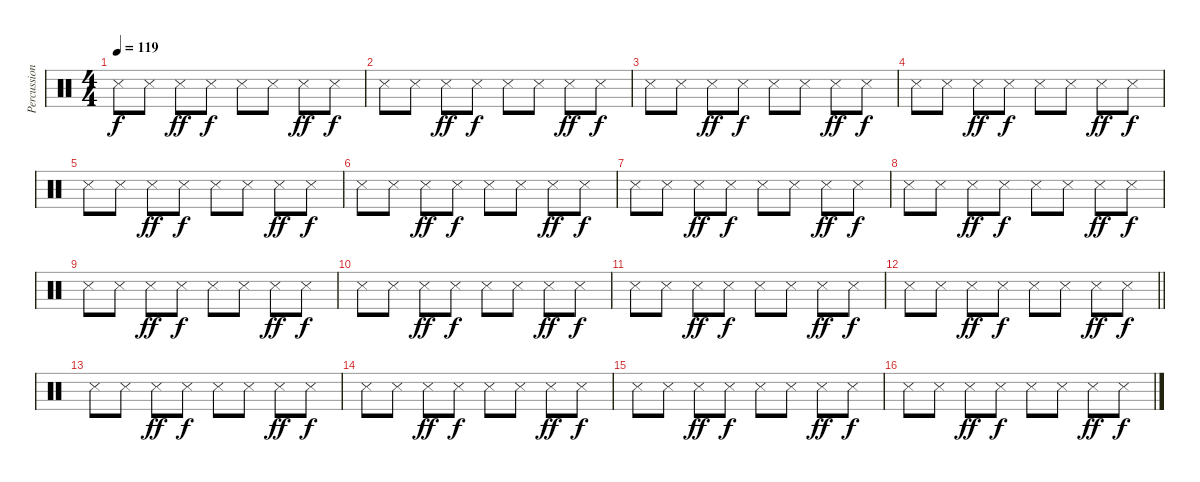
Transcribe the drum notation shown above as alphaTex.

\track ("Percussion" "Percussion") {instrument percussion}
\staff {score}
\articulation defaults
\ts (4 4)
\tempo 119
\clef neutral
\ks c "Snare (side stick) 3".8{dy f} "Snare (side stick) 3".8 "Snare (side stick) 3".8{dy ff} "Snare (side stick) 3".8{dy f} "Snare (side stick) 3".8 "Snare (side stick) 3".8 "Snare (side stick) 3".8{dy ff} "Snare (side stick) 3".8{dy f}
|
"Snare (side stick) 3".8 "Snare (side stick) 3".8 "Snare (side stick) 3".8{dy ff} "Snare (side stick) 3".8{dy f} "Snare (side stick) 3".8 "Snare (side stick) 3".8 "Snare (side stick) 3".8{dy ff} "Snare (side stick) 3".8{dy f} |
"Snare (side stick) 3".8 "Snare (side stick) 3".8 "Snare (side stick) 3".8{dy ff} "Snare (side stick) 3".8{dy f} "Snare (side stick) 3".8 "Snare (side stick) 3".8 "Snare (side stick) 3".8{dy ff} "Snare (side stick) 3".8{dy f} |
"Snare (side stick) 3".8 "Snare (side stick) 3".8 "Snare (side stick) 3".8{dy ff} "Snare (side stick) 3".8{dy f} "Snare (side stick) 3".8 "Snare (side stick) 3".8 "Snare (side stick) 3".8{dy ff} "Snare (side stick) 3".8{dy f} |
"Snare (side stick) 3".8 "Snare (side stick) 3".8 "Snare (side stick) 3".8{dy ff} "Snare (side stick) 3".8{dy f} "Snare (side stick) 3".8 "Snare (side stick) 3".8 "Snare (side stick) 3".8{dy ff} "Snare (side stick) 3".8{dy f} |
"Snare (side stick) 3".8 "Snare (side stick) 3".8 "Snare (side stick) 3".8{dy ff} "Snare (side stick) 3".8{dy f} "Snare (side stick) 3".8 "Snare (side stick) 3".8 "Snare (side stick) 3".8{dy ff} "Snare (side stick) 3".8{dy f} |
"Snare (side stick) 3".8 "Snare (side stick) 3".8 "Snare (side stick) 3".8{dy ff} "Snare (side stick) 3".8{dy f} "Snare (side stick) 3".8 "Snare (side stick) 3".8 "Snare (side stick) 3".8{dy ff} "Snare (side stick) 3".8{dy f} |
"Snare (side stick) 3".8 "Snare (side stick) 3".8 "Snare (side stick) 3".8{dy ff} "Snare (side stick) 3".8{dy f} "Snare (side stick) 3".8 "Snare (side stick) 3".8 "Snare (side stick) 3".8{dy ff} "Snare (side stick) 3".8{dy f} |
"Snare (side stick) 3".8 "Snare (side stick) 3".8 "Snare (side stick) 3".8{dy ff} "Snare (side stick) 3".8{dy f} "Snare (side stick) 3".8 "Snare (side stick) 3".8 "Snare (side stick) 3".8{dy ff} "Snare (side stick) 3".8{dy f} |
"Snare (side stick) 3".8 "Snare (side stick) 3".8 "Snare (side stick) 3".8{dy ff} "Snare (side stick) 3".8{dy f} "Snare (side stick) 3".8 "Snare (side stick) 3".8 "Snare (side stick) 3".8{dy ff} "Snare (side stick) 3".8{dy f} |
"Snare (side stick) 3".8 "Snare (side stick) 3".8 "Snare (side stick) 3".8{dy ff} "Snare (side stick) 3".8{dy f} "Snare (side stick) 3".8 "Snare (side stick) 3".8 "Snare (side stick) 3".8{dy ff} "Snare (side stick) 3".8{dy f} |
\barLineRight lightlight "Snare (side stick) 3".8 "Snare (side stick) 3".8 "Snare (side stick) 3".8{dy ff} "Snare (side stick) 3".8{dy f} "Snare (side stick) 3".8 "Snare (side stick) 3".8 "Snare (side stick) 3".8{dy ff} "Snare (side stick) 3".8{dy f}
|
"Snare (side stick) 3".8 "Snare (side stick) 3".8 "Snare (side stick) 3".8{dy ff} "Snare (side stick) 3".8{dy f} "Snare (side stick) 3".8 "Snare (side stick) 3".8 "Snare (side stick) 3".8{dy ff} "Snare (side stick) 3".8{dy f} |
"Snare (side stick) 3".8 "Snare (side stick) 3".8 "Snare (side stick) 3".8{dy ff} "Snare (side stick) 3".8{dy f} "Snare (side stick) 3".8 "Snare (side stick) 3".8 "Snare (side stick) 3".8{dy ff} "Snare (side stick) 3".8{dy f} |
"Snare (side stick) 3".8 "Snare (side stick) 3".8 "Snare (side stick) 3".8{dy ff} "Snare (side stick) 3".8{dy f} "Snare (side stick) 3".8 "Snare (side stick) 3".8 "Snare (side stick) 3".8{dy ff} "Snare (side stick) 3".8{dy f} |
"Snare (side stick) 3".8 "Snare (side stick) 3".8 "Snare (side stick) 3".8{dy ff} "Snare (side stick) 3".8{dy f} "Snare (side stick) 3".8 "Snare (side stick) 3".8 "Snare (side stick) 3".8{dy ff} "Snare (side stick) 3".8{dy f}
